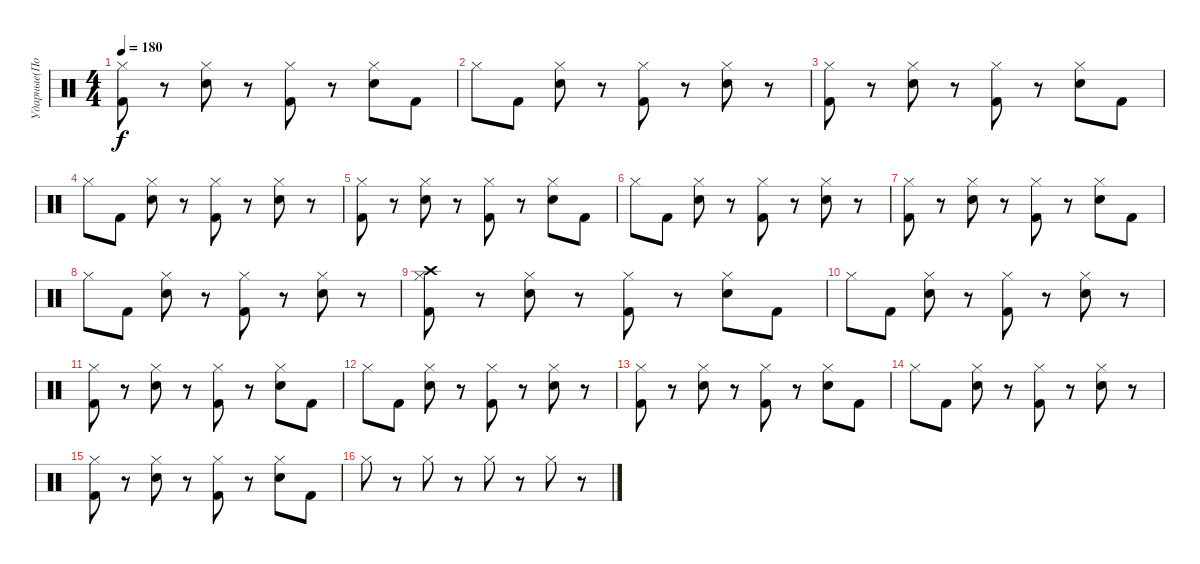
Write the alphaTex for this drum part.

\track ("Ударные(Потапкин)" "Ударные(По") {instrument percussion}
\staff {score}
\articulation defaults
\ts (4 4)
\tempo 180
\clef neutral
\ks c
("Kick (hit) 2" "Hi-Hat (closed)").8{dy f} r.8 ("Electric Snare (hit)" "Hi-Hat (closed)").8 r.8 ("Kick (hit) 2" "Hi-Hat (closed)").8 r.8 ("Electric Snare (hit)" "Hi-Hat (closed)").8 "Kick (hit) 2".8 |
"Hi-Hat (closed)".8 "Kick (hit) 2".8 ("Hi-Hat (closed)" "Electric Snare (hit)").8 r.8 ("Hi-Hat (closed)" "Kick (hit) 2").8 r.8 ("Hi-Hat (closed)" "Electric Snare (hit)").8 r.8 |
("Kick (hit) 2" "Hi-Hat (closed)").8 r.8 ("Electric Snare (hit)" "Hi-Hat (closed)").8 r.8 ("Kick (hit) 2" "Hi-Hat (closed)").8 r.8 ("Electric Snare (hit)" "Hi-Hat (closed)").8 "Kick (hit) 2".8 |
"Hi-Hat (closed)".8 "Kick (hit) 2".8 ("Electric Snare (hit)" "Hi-Hat (closed)").8 r.8 ("Kick (hit) 2" "Hi-Hat (closed)").8 r.8 ("Electric Snare (hit)" "Hi-Hat (closed)").8 r.8 |
("Kick (hit) 2" "Hi-Hat (closed)").8 r.8 ("Electric Snare (hit)" "Hi-Hat (closed)").8 r.8 ("Kick (hit) 2" "Hi-Hat (closed)").8 r.8 ("Electric Snare (hit)" "Hi-Hat (closed)").8 "Kick (hit) 2".8 |
"Hi-Hat (closed)".8 "Kick (hit) 2".8 ("Electric Snare (hit)" "Hi-Hat (closed)").8 r.8 ("Kick (hit) 2" "Hi-Hat (closed)").8 r.8 ("Electric Snare (hit)" "Hi-Hat (closed)").8 r.8 |
("Kick (hit) 2" "Hi-Hat (closed)").8 r.8 ("Electric Snare (hit)" "Hi-Hat (closed)").8 r.8 ("Kick (hit) 2" "Hi-Hat (closed)").8 r.8 ("Electric Snare (hit)" "Hi-Hat (closed)").8 "Kick (hit) 2".8 |
"Hi-Hat (closed)".8 "Kick (hit) 2".8 ("Electric Snare (hit)" "Hi-Hat (closed)").8 r.8 ("Kick (hit) 2" "Hi-Hat (closed)").8 r.8 ("Electric Snare (hit)" "Hi-Hat (closed)").8 r.8 |
("Crash high (hit)" "Kick (hit) 2" "Hi-Hat (closed)").8 r.8 ("Electric Snare (hit)" "Hi-Hat (closed)").8 r.8 ("Kick (hit) 2" "Hi-Hat (closed)").8 r.8 ("Electric Snare (hit)" "Hi-Hat (closed)").8 "Kick (hit) 2".8 |
"Hi-Hat (closed)".8 "Kick (hit) 2".8 ("Electric Snare (hit)" "Hi-Hat (closed)").8 r.8 ("Kick (hit) 2" "Hi-Hat (closed)").8 r.8 ("Electric Snare (hit)" "Hi-Hat (closed)").8 r.8 |
("Kick (hit) 2" "Hi-Hat (closed)").8 r.8 ("Electric Snare (hit)" "Hi-Hat (closed)").8 r.8 ("Kick (hit) 2" "Hi-Hat (closed)").8 r.8 ("Electric Snare (hit)" "Hi-Hat (closed)").8 "Kick (hit) 2".8 |
"Hi-Hat (closed)".8 "Kick (hit) 2".8 ("Electric Snare (hit)" "Hi-Hat (closed)").8 r.8 ("Kick (hit) 2" "Hi-Hat (closed)").8 r.8 ("Electric Snare (hit)" "Hi-Hat (closed)").8 r.8 |
("Kick (hit) 2" "Hi-Hat (closed)").8 r.8 ("Electric Snare (hit)" "Hi-Hat (closed)").8 r.8 ("Kick (hit) 2" "Hi-Hat (closed)").8 r.8 ("Electric Snare (hit)" "Hi-Hat (closed)").8 "Kick (hit) 2".8 |
"Hi-Hat (closed)".8 "Kick (hit) 2".8 ("Electric Snare (hit)" "Hi-Hat (closed)").8 r.8 ("Kick (hit) 2" "Hi-Hat (closed)").8 r.8 ("Electric Snare (hit)" "Hi-Hat (closed)").8 r.8 |
("Kick (hit) 2" "Hi-Hat (closed)").8 r.8 ("Electric Snare (hit)" "Hi-Hat (closed)").8 r.8 ("Kick (hit) 2" "Hi-Hat (closed)").8 r.8 ("Electric Snare (hit)" "Hi-Hat (closed)").8 "Kick (hit) 2".8 |
"Hi-Hat (closed)".8 r.8 "Hi-Hat (closed)".8 r.8 "Hi-Hat (closed)".8 r.8 "Hi-Hat (closed)".8 r.8
